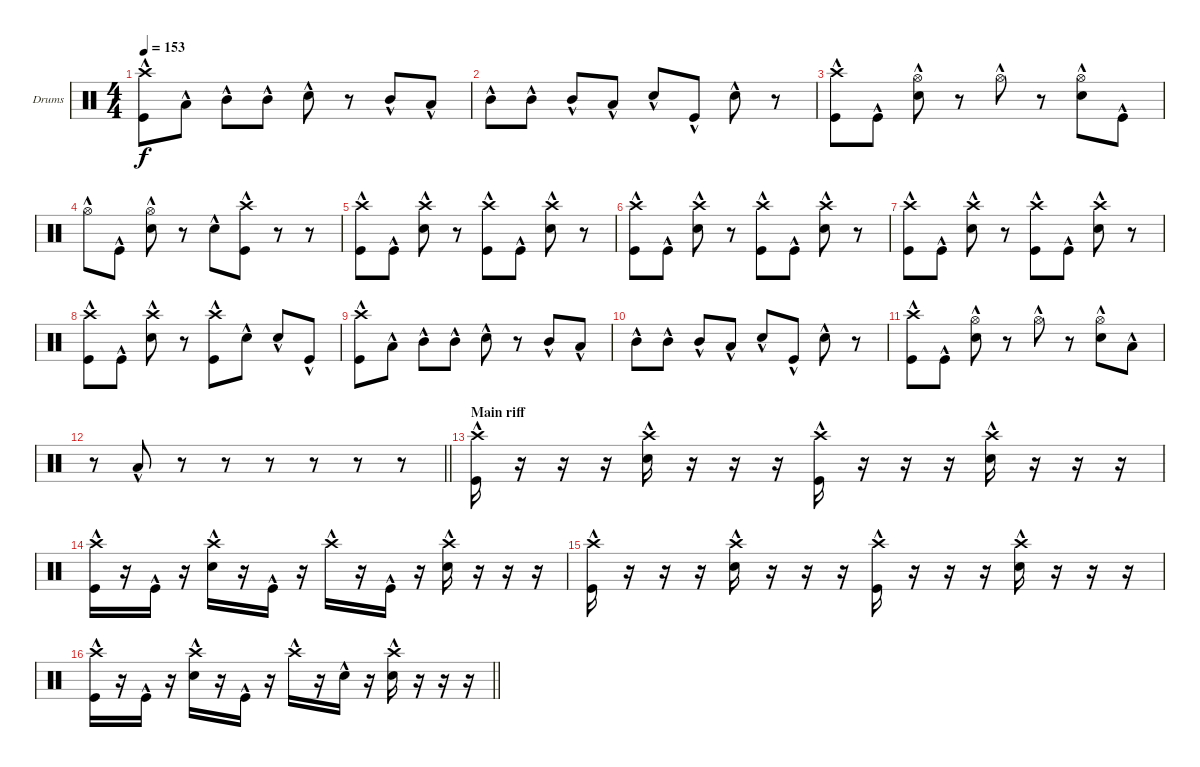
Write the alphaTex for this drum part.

\bracketExtendMode groupsimilarinstruments
\firstSystemTrackNameOrientation horizontal
\otherSystemsTrackNameOrientation horizontal
\track ("Drumkit" "Drums") {solo instrument percussion}
\staff {score}
\articulation defaults
\ts (4 4)
\tempo 153
\clef neutral
\ks c
("Crash high (hit)"{hac} "Kick (hit)"{hac}).8{dy f} "Low Tom (hit)"{hac}.8 "Mid Tom (hit)"{hac}.8 "Mid Tom (hit)"{hac}.8 "Snare (hit) 2"{hac}.8 r.8 "Mid Tom (hit)"{hac}.8 "Low Tom (hit)"{hac}.8 |
"Mid Tom (hit)"{hac}.8 "Mid Tom (hit)"{hac}.8 "Mid Tom (hit)"{hac}.8 "Low Tom (hit)"{hac}.8 "Snare (hit) 2"{hac}.8 "Kick (hit)"{hac}.8 "Snare (hit) 2"{hac}.8 r.8 |
("Crash high (hit)"{hac} "Kick (hit)"{hac}).8 "Kick (hit)"{hac}.8 ("Hi-Hat (open)"{hac} "Snare (hit) 2"{hac}).8 r.8 "Hi-Hat (open)"{hac}.8 r.8 ("Hi-Hat (open)"{hac} "Snare (hit) 2"{hac}).8 "Kick (hit)"{hac}.8 |
"Hi-Hat (open)"{hac}.8 "Kick (hit)"{hac}.8 ("Hi-Hat (open)"{hac} "Snare (hit) 2"{hac}).8 r.8 "Snare (hit) 2"{hac}.8 ("Crash high (hit)"{hac} "Kick (hit)"{hac}).8 r.8 r.8 |
("Crash high (hit)"{hac} "Kick (hit)"{hac}).8 "Kick (hit)"{hac}.8 ("Crash high (hit)"{hac} "Snare (hit) 2"{hac}).8 r.8 ("Crash high (hit)"{hac} "Kick (hit)"{hac}).8 "Kick (hit)"{hac}.8 ("Crash high (hit)"{hac} "Snare (hit) 2"{hac}).8 r.8 |
("Crash high (hit)"{hac} "Kick (hit)"{hac}).8 "Kick (hit)"{hac}.8 ("Crash high (hit)"{hac} "Snare (hit) 2"{hac}).8 r.8 ("Crash high (hit)"{hac} "Kick (hit)"{hac}).8 "Kick (hit)"{hac}.8 ("Crash high (hit)"{hac} "Snare (hit) 2"{hac}).8 r.8 |
("Crash high (hit)"{hac} "Kick (hit)"{hac}).8 "Kick (hit)"{hac}.8 ("Crash high (hit)"{hac} "Snare (hit) 2"{hac}).8 r.8 ("Crash high (hit)"{hac} "Kick (hit)"{hac}).8 "Kick (hit)"{hac}.8 ("Crash high (hit)"{hac} "Snare (hit) 2"{hac}).8 r.8 |
("Crash high (hit)"{hac} "Kick (hit)"{hac}).8 "Kick (hit)"{hac}.8 ("Crash high (hit)"{hac} "Snare (hit) 2"{hac}).8 r.8 ("Crash high (hit)"{hac} "Kick (hit)"{hac}).8 "Snare (hit) 2"{hac}.8 "Snare (hit) 2"{hac}.8 "Kick (hit)"{hac}.8 |
("Crash high (hit)"{hac} "Kick (hit)"{hac}).8 "Low Tom (hit)"{hac}.8 "Mid Tom (hit)"{hac}.8 "Mid Tom (hit)"{hac}.8 "Snare (hit) 2"{hac}.8 r.8 "Mid Tom (hit)"{hac}.8 "Low Tom (hit)"{hac}.8 |
"Mid Tom (hit)"{hac}.8 "Mid Tom (hit)"{hac}.8 "Mid Tom (hit)"{hac}.8 "Low Tom (hit)"{hac}.8 "Snare (hit) 2"{hac}.8 "Kick (hit)"{hac}.8 "Snare (hit) 2"{hac}.8 r.8 |
("Crash high (hit)"{hac} "Kick (hit)"{hac}).8 "Kick (hit)"{hac}.8 ("Hi-Hat (open)"{hac} "Snare (hit) 2"{hac}).8 r.8 "Hi-Hat (open)"{hac}.8 r.8 ("Hi-Hat (open)"{hac} "Snare (hit) 2"{hac}).8 "Low Tom (hit)"{hac}.8 |
\barLineRight lightlight
r.8 "Low Tom (hit)"{hac}.8 r.8 r.8 r.8 r.8 r.8 r.8 |
\section ("" "Main riff")
("Crash high (hit)"{hac} "Kick (hit)"{hac}).16 r.16 r.16 r.16 ("Crash high (hit)"{hac} "Snare (hit) 2"{hac}).16 r.16 r.16 r.16 ("Crash high (hit)"{hac} "Kick (hit)"{hac}).16 r.16 r.16 r.16 ("Crash high (hit)"{hac} "Snare (hit) 2"{hac}).16 r.16 r.16 r.16 |
("Crash high (hit)"{hac} "Kick (hit)"{hac}).16 r.16 "Kick (hit)"{hac}.16 r.16 ("Crash high (hit)"{hac} "Snare (hit) 2"{hac}).16 r.16 "Kick (hit)"{hac}.16 r.16 "Crash high (hit)"{hac}.16 r.16 "Kick (hit)"{hac}.16 r.16 ("Crash high (hit)"{hac} "Snare (hit) 2"{hac}).16 r.16 r.16 r.16 |
("Crash high (hit)"{hac} "Kick (hit)"{hac}).16 r.16 r.16 r.16 ("Crash high (hit)"{hac} "Snare (hit) 2"{hac}).16 r.16 r.16 r.16 ("Crash high (hit)"{hac} "Kick (hit)"{hac}).16 r.16 r.16 r.16 ("Crash high (hit)"{hac} "Snare (hit) 2"{hac}).16 r.16 r.16 r.16 |
\barLineRight lightlight
("Crash high (hit)"{hac} "Kick (hit)"{hac}).16 r.16 "Kick (hit)"{hac}.16 r.16 ("Crash high (hit)"{hac} "Snare (hit) 2"{hac}).16 r.16 "Kick (hit)"{hac}.16 r.16 "Crash high (hit)"{hac}.16 r.16 "Snare (hit) 2"{hac}.16 r.16 ("Crash high (hit)"{hac} "Snare (hit) 2"{hac}).16 r.16 r.16 r.16
